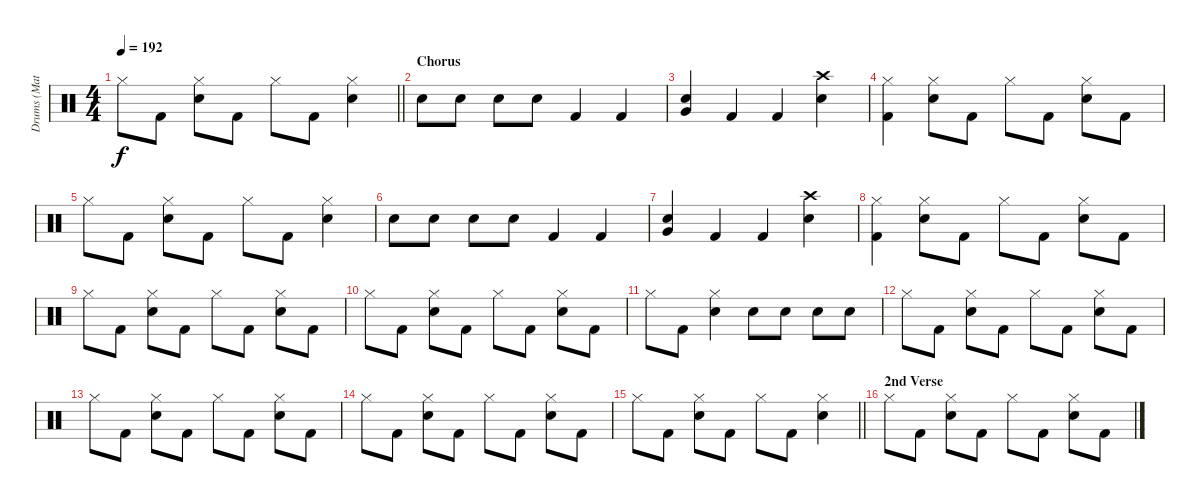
\track ("Drums (Matt)" "Drums (Mat") {instrument percussion}
\staff {score}
\articulation defaults
\ts (4 4)
\tempo 192
\clef neutral
\barLineRight lightlight
\ks c "Hi-Hat (closed)".8{dy f} "Kick (hit) 2".8
("Hi-Hat (closed)" "Snare (hit) 2").8 "Kick (hit) 2".8 "Hi-Hat (closed)".8 "Kick (hit) 2".8 ("Hi-Hat (closed)" "Snare (hit) 2").4 |
\section ("" "Chorus")
"Snare (hit) 2".8 "Snare (hit) 2".8 "Snare (hit) 2".8 "Snare (hit) 2".8 "Kick (hit) 2".4 "Kick (hit) 2".4 |
("Very Low Tom (hit)" "Snare (hit) 2").4 "Kick (hit) 2".4 "Kick (hit) 2".4 ("Crash high (hit)" "Snare (hit) 2").4 |
("Hi-Hat (closed)" "Kick (hit) 2").4 ("Hi-Hat (closed)" "Snare (hit) 2").8 "Kick (hit) 2".8 "Hi-Hat (closed)".8 "Kick (hit) 2".8 ("Hi-Hat (closed)" "Snare (hit) 2").8 "Kick (hit) 2".8 |
"Hi-Hat (closed)".8 "Kick (hit) 2".8 ("Hi-Hat (closed)" "Snare (hit) 2").8 "Kick (hit) 2".8 "Hi-Hat (closed)".8 "Kick (hit) 2".8 ("Hi-Hat (closed)" "Snare (hit) 2").4 |
"Snare (hit) 2".8 "Snare (hit) 2".8 "Snare (hit) 2".8 "Snare (hit) 2".8 "Kick (hit) 2".4 "Kick (hit) 2".4 |
("Very Low Tom (hit)" "Snare (hit) 2").4 "Kick (hit) 2".4 "Kick (hit) 2".4 ("Crash high (hit)" "Snare (hit) 2").4 |
("Hi-Hat (closed)" "Kick (hit) 2").4 ("Hi-Hat (closed)" "Snare (hit) 2").8 "Kick (hit) 2".8 "Hi-Hat (closed)".8 "Kick (hit) 2".8 ("Hi-Hat (closed)" "Snare (hit) 2").8 "Kick (hit) 2".8 |
"Hi-Hat (closed)".8 "Kick (hit) 2".8 ("Hi-Hat (closed)" "Snare (hit) 2").8 "Kick (hit) 2".8 "Hi-Hat (closed)".8 "Kick (hit) 2".8 ("Hi-Hat (closed)" "Snare (hit) 2").8 "Kick (hit) 2".8 |
"Hi-Hat (closed)".8 "Kick (hit) 2".8 ("Hi-Hat (closed)" "Snare (hit) 2").8 "Kick (hit) 2".8 "Hi-Hat (closed)".8 "Kick (hit) 2".8 ("Hi-Hat (closed)" "Snare (hit) 2").8 "Kick (hit) 2".8 |
"Hi-Hat (closed)".8 "Kick (hit) 2".8 ("Hi-Hat (closed)" "Snare (hit) 2").4 "Snare (hit) 2".8 "Snare (hit) 2".8 "Snare (hit) 2".8 "Snare (hit) 2".8 |
"Hi-Hat (closed)".8 "Kick (hit) 2".8 ("Hi-Hat (closed)" "Snare (hit) 2").8 "Kick (hit) 2".8 "Hi-Hat (closed)".8 "Kick (hit) 2".8 ("Hi-Hat (closed)" "Snare (hit) 2").8 "Kick (hit) 2".8 |
"Hi-Hat (closed)".8 "Kick (hit) 2".8 ("Hi-Hat (closed)" "Snare (hit) 2").8 "Kick (hit) 2".8 "Hi-Hat (closed)".8 "Kick (hit) 2".8 ("Hi-Hat (closed)" "Snare (hit) 2").8 "Kick (hit) 2".8 |
"Hi-Hat (closed)".8 "Kick (hit) 2".8 ("Hi-Hat (closed)" "Snare (hit) 2").8 "Kick (hit) 2".8 "Hi-Hat (closed)".8 "Kick (hit) 2".8 ("Hi-Hat (closed)" "Snare (hit) 2").8 "Kick (hit) 2".8 |
\barLineRight lightlight "Hi-Hat (closed)".8 "Kick (hit) 2".8
("Hi-Hat (closed)" "Snare (hit) 2").8 "Kick (hit) 2".8 "Hi-Hat (closed)".8 "Kick (hit) 2".8 ("Hi-Hat (closed)" "Snare (hit) 2").4 |
\section ("" "2nd Verse")
"Hi-Hat (closed)".8 "Kick (hit) 2".8 ("Hi-Hat (closed)" "Snare (hit) 2").8 "Kick (hit) 2".8 "Hi-Hat (closed)".8 "Kick (hit) 2".8 ("Hi-Hat (closed)" "Snare (hit) 2").8 "Kick (hit) 2".8
